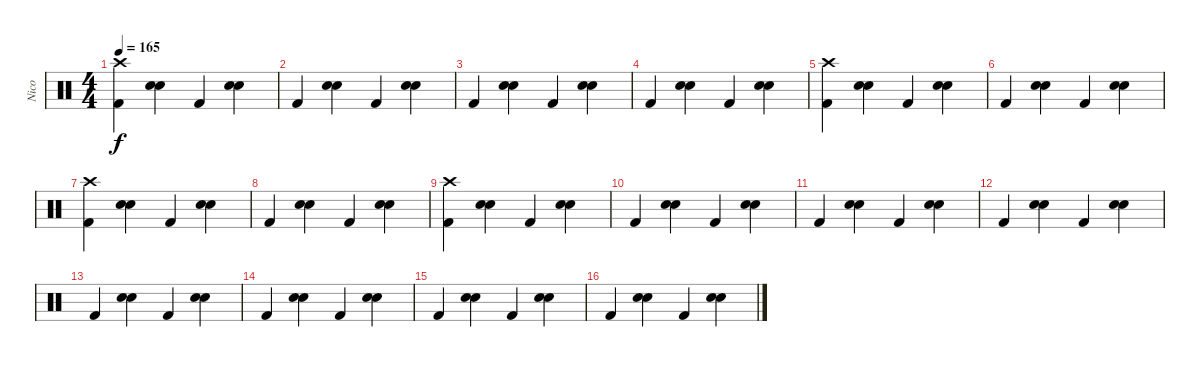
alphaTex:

\track ("Nico" "Nico") {instrument percussion}
\staff {score}
\articulation defaults
\ts (4 4)
\tempo 165
\clef neutral
\ks c
("Kick (hit) 2" "Crash high (hit)").4{dy f} ("Electric Snare (hit)" "Electric Snare (hit)").4{bd 240} "Kick (hit) 2".4 ("Electric Snare (hit)" "Electric Snare (hit)").4{bd 240} |
"Kick (hit) 2".4 ("Electric Snare (hit)" "Electric Snare (hit)").4{bd 240} "Kick (hit) 2".4 ("Electric Snare (hit)" "Electric Snare (hit)").4{bd 240} |
"Kick (hit) 2".4 ("Electric Snare (hit)" "Electric Snare (hit)").4{bd 240} "Kick (hit) 2".4 ("Electric Snare (hit)" "Electric Snare (hit)").4{bd 240} |
"Kick (hit) 2".4 ("Electric Snare (hit)" "Electric Snare (hit)").4{bd 240} "Kick (hit) 2".4 ("Electric Snare (hit)" "Electric Snare (hit)").4{bd 240} |
("Kick (hit) 2" "Crash high (hit)").4 ("Electric Snare (hit)" "Electric Snare (hit)").4{bd 240} "Kick (hit) 2".4 ("Electric Snare (hit)" "Electric Snare (hit)").4{bd 240} |
"Kick (hit) 2".4 ("Electric Snare (hit)" "Electric Snare (hit)").4{bd 240} "Kick (hit) 2".4 ("Electric Snare (hit)" "Electric Snare (hit)").4{bd 240} |
("Kick (hit) 2" "Crash high (hit)").4 ("Electric Snare (hit)" "Electric Snare (hit)").4{bd 240} "Kick (hit) 2".4 ("Electric Snare (hit)" "Electric Snare (hit)").4{bd 240} |
"Kick (hit) 2".4 ("Electric Snare (hit)" "Electric Snare (hit)").4{bd 240} "Kick (hit) 2".4 ("Electric Snare (hit)" "Electric Snare (hit)").4{bd 240} |
("Kick (hit) 2" "Crash high (hit)").4 ("Electric Snare (hit)" "Electric Snare (hit)").4{bd 240} "Kick (hit) 2".4 ("Electric Snare (hit)" "Electric Snare (hit)").4{bd 240} |
"Kick (hit) 2".4 ("Electric Snare (hit)" "Electric Snare (hit)").4{bd 240} "Kick (hit) 2".4 ("Electric Snare (hit)" "Electric Snare (hit)").4{bd 240} |
"Kick (hit) 2".4 ("Electric Snare (hit)" "Electric Snare (hit)").4{bd 240} "Kick (hit) 2".4 ("Electric Snare (hit)" "Electric Snare (hit)").4{bd 240} |
"Kick (hit) 2".4 ("Electric Snare (hit)" "Electric Snare (hit)").4{bd 240} "Kick (hit) 2".4 ("Electric Snare (hit)" "Electric Snare (hit)").4{bd 240} |
"Kick (hit) 2".4 ("Electric Snare (hit)" "Electric Snare (hit)").4{bd 240} "Kick (hit) 2".4 ("Electric Snare (hit)" "Electric Snare (hit)").4{bd 240} |
"Kick (hit) 2".4 ("Electric Snare (hit)" "Electric Snare (hit)").4{bd 240} "Kick (hit) 2".4 ("Electric Snare (hit)" "Electric Snare (hit)").4{bd 240} |
"Kick (hit) 2".4 ("Electric Snare (hit)" "Electric Snare (hit)").4{bd 240} "Kick (hit) 2".4 ("Electric Snare (hit)" "Electric Snare (hit)").4{bd 240} |
"Kick (hit) 2".4 ("Electric Snare (hit)" "Electric Snare (hit)").4{bd 240} "Kick (hit) 2".4 ("Electric Snare (hit)" "Electric Snare (hit)").4{bd 240}
